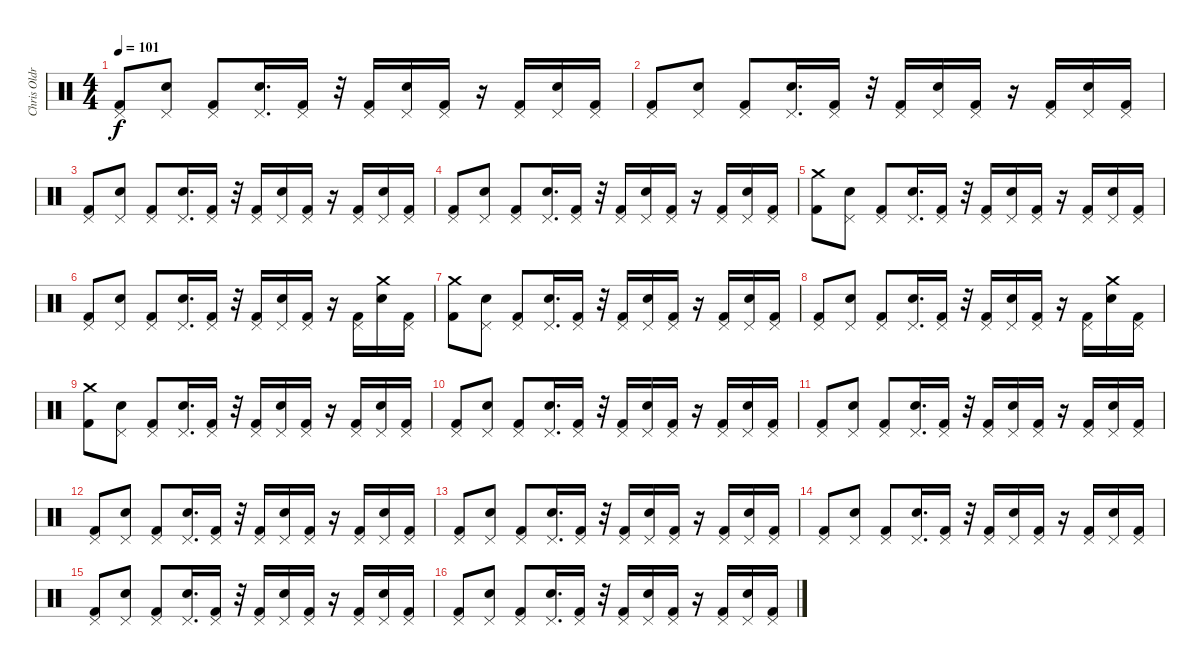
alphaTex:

\track ("Chris Oldroyd" "Chris Oldr") {instrument percussion}
\staff {score}
\articulation defaults
\ts (4 4)
\tempo 101
\clef neutral
\ks c
("Pedal Hi-Hat (hit)" "Kick (hit) 2").8{dy f} ("Pedal Hi-Hat (hit)" "Snare (hit) 2").8 ("Pedal Hi-Hat (hit)" "Kick (hit) 2").8 ("Pedal Hi-Hat (hit)" "Snare (hit) 2").16{d} ("Pedal Hi-Hat (hit)" "Kick (hit) 2").16 r.32 ("Pedal Hi-Hat (hit)" "Kick (hit) 2").16 ("Pedal Hi-Hat (hit)" "Snare (hit) 2").16 ("Pedal Hi-Hat (hit)" "Kick (hit) 2").16 r.16 ("Pedal Hi-Hat (hit)" "Kick (hit) 2").16 ("Pedal Hi-Hat (hit)" "Snare (hit) 2").16 ("Pedal Hi-Hat (hit)" "Kick (hit) 2").16 |
("Pedal Hi-Hat (hit)" "Kick (hit) 2").8 ("Pedal Hi-Hat (hit)" "Snare (hit) 2").8 ("Pedal Hi-Hat (hit)" "Kick (hit) 2").8 ("Pedal Hi-Hat (hit)" "Snare (hit) 2").16{d} ("Pedal Hi-Hat (hit)" "Kick (hit) 2").16 r.32 ("Pedal Hi-Hat (hit)" "Kick (hit) 2").16 ("Pedal Hi-Hat (hit)" "Snare (hit) 2").16 ("Pedal Hi-Hat (hit)" "Kick (hit) 2").16 r.16 ("Pedal Hi-Hat (hit)" "Kick (hit) 2").16 ("Pedal Hi-Hat (hit)" "Snare (hit) 2").16 ("Pedal Hi-Hat (hit)" "Kick (hit) 2").16 |
("Pedal Hi-Hat (hit)" "Kick (hit) 2").8 ("Pedal Hi-Hat (hit)" "Snare (hit) 2").8 ("Pedal Hi-Hat (hit)" "Kick (hit) 2").8 ("Pedal Hi-Hat (hit)" "Snare (hit) 2").16{d} ("Pedal Hi-Hat (hit)" "Kick (hit) 2").16 r.32 ("Pedal Hi-Hat (hit)" "Kick (hit) 2").16 ("Pedal Hi-Hat (hit)" "Snare (hit) 2").16 ("Pedal Hi-Hat (hit)" "Kick (hit) 2").16 r.16 ("Pedal Hi-Hat (hit)" "Kick (hit) 2").16 ("Pedal Hi-Hat (hit)" "Snare (hit) 2").16 ("Pedal Hi-Hat (hit)" "Kick (hit) 2").16 |
("Pedal Hi-Hat (hit)" "Kick (hit) 2").8 ("Pedal Hi-Hat (hit)" "Snare (hit) 2").8 ("Pedal Hi-Hat (hit)" "Kick (hit) 2").8 ("Pedal Hi-Hat (hit)" "Snare (hit) 2").16{d} ("Pedal Hi-Hat (hit)" "Kick (hit) 2").16 r.32 ("Pedal Hi-Hat (hit)" "Kick (hit) 2").16 ("Pedal Hi-Hat (hit)" "Snare (hit) 2").16 ("Pedal Hi-Hat (hit)" "Kick (hit) 2").16 r.16 ("Pedal Hi-Hat (hit)" "Kick (hit) 2").16 ("Pedal Hi-Hat (hit)" "Snare (hit) 2").16 ("Pedal Hi-Hat (hit)" "Kick (hit) 2").16 |
("Crash medium (hit)" "Kick (hit) 2").8 ("Pedal Hi-Hat (hit)" "Snare (hit) 2").8 ("Pedal Hi-Hat (hit)" "Kick (hit) 2").8 ("Pedal Hi-Hat (hit)" "Snare (hit) 2").16{d} ("Pedal Hi-Hat (hit)" "Kick (hit) 2").16 r.32 ("Pedal Hi-Hat (hit)" "Kick (hit) 2").16 ("Pedal Hi-Hat (hit)" "Snare (hit) 2").16 ("Pedal Hi-Hat (hit)" "Kick (hit) 2").16 r.16 ("Pedal Hi-Hat (hit)" "Kick (hit) 2").16 ("Pedal Hi-Hat (hit)" "Snare (hit) 2").16 ("Pedal Hi-Hat (hit)" "Kick (hit) 2").16 |
("Pedal Hi-Hat (hit)" "Kick (hit) 2").8 ("Pedal Hi-Hat (hit)" "Snare (hit) 2").8 ("Pedal Hi-Hat (hit)" "Kick (hit) 2").8 ("Pedal Hi-Hat (hit)" "Snare (hit) 2").16{d} ("Pedal Hi-Hat (hit)" "Kick (hit) 2").16 r.32 ("Pedal Hi-Hat (hit)" "Kick (hit) 2").16 ("Pedal Hi-Hat (hit)" "Snare (hit) 2").16 ("Pedal Hi-Hat (hit)" "Kick (hit) 2").16 r.16 ("Pedal Hi-Hat (hit)" "Kick (hit) 2").16 ("Crash medium (hit)" "Snare (hit) 2").16 ("Pedal Hi-Hat (hit)" "Kick (hit) 2").16 |
("Crash medium (hit)" "Kick (hit) 2").8 ("Pedal Hi-Hat (hit)" "Snare (hit) 2").8 ("Pedal Hi-Hat (hit)" "Kick (hit) 2").8 ("Pedal Hi-Hat (hit)" "Snare (hit) 2").16{d} ("Pedal Hi-Hat (hit)" "Kick (hit) 2").16 r.32 ("Pedal Hi-Hat (hit)" "Kick (hit) 2").16 ("Pedal Hi-Hat (hit)" "Snare (hit) 2").16 ("Pedal Hi-Hat (hit)" "Kick (hit) 2").16 r.16 ("Pedal Hi-Hat (hit)" "Kick (hit) 2").16 ("Pedal Hi-Hat (hit)" "Snare (hit) 2").16 ("Pedal Hi-Hat (hit)" "Kick (hit) 2").16 |
("Pedal Hi-Hat (hit)" "Kick (hit) 2").8 ("Pedal Hi-Hat (hit)" "Snare (hit) 2").8 ("Pedal Hi-Hat (hit)" "Kick (hit) 2").8 ("Pedal Hi-Hat (hit)" "Snare (hit) 2").16{d} ("Pedal Hi-Hat (hit)" "Kick (hit) 2").16 r.32 ("Pedal Hi-Hat (hit)" "Kick (hit) 2").16 ("Pedal Hi-Hat (hit)" "Snare (hit) 2").16 ("Pedal Hi-Hat (hit)" "Kick (hit) 2").16 r.16 ("Pedal Hi-Hat (hit)" "Kick (hit) 2").16 ("Crash medium (hit)" "Snare (hit) 2").16 ("Pedal Hi-Hat (hit)" "Kick (hit) 2").16 |
("Crash medium (hit)" "Kick (hit) 2").8 ("Pedal Hi-Hat (hit)" "Snare (hit) 2").8 ("Pedal Hi-Hat (hit)" "Kick (hit) 2").8 ("Pedal Hi-Hat (hit)" "Snare (hit) 2").16{d} ("Pedal Hi-Hat (hit)" "Kick (hit) 2").16 r.32 ("Pedal Hi-Hat (hit)" "Kick (hit) 2").16 ("Pedal Hi-Hat (hit)" "Snare (hit) 2").16 ("Pedal Hi-Hat (hit)" "Kick (hit) 2").16 r.16 ("Pedal Hi-Hat (hit)" "Kick (hit) 2").16 ("Pedal Hi-Hat (hit)" "Snare (hit) 2").16 ("Pedal Hi-Hat (hit)" "Kick (hit) 2").16 |
("Pedal Hi-Hat (hit)" "Kick (hit) 2").8 ("Pedal Hi-Hat (hit)" "Snare (hit) 2").8 ("Pedal Hi-Hat (hit)" "Kick (hit) 2").8 ("Pedal Hi-Hat (hit)" "Snare (hit) 2").16{d} ("Pedal Hi-Hat (hit)" "Kick (hit) 2").16 r.32 ("Pedal Hi-Hat (hit)" "Kick (hit) 2").16 ("Pedal Hi-Hat (hit)" "Snare (hit) 2").16 ("Pedal Hi-Hat (hit)" "Kick (hit) 2").16 r.16 ("Pedal Hi-Hat (hit)" "Kick (hit) 2").16 ("Pedal Hi-Hat (hit)" "Snare (hit) 2").16 ("Pedal Hi-Hat (hit)" "Kick (hit) 2").16 |
("Pedal Hi-Hat (hit)" "Kick (hit) 2").8 ("Pedal Hi-Hat (hit)" "Snare (hit) 2").8 ("Pedal Hi-Hat (hit)" "Kick (hit) 2").8 ("Pedal Hi-Hat (hit)" "Snare (hit) 2").16{d} ("Pedal Hi-Hat (hit)" "Kick (hit) 2").16 r.32 ("Pedal Hi-Hat (hit)" "Kick (hit) 2").16 ("Pedal Hi-Hat (hit)" "Snare (hit) 2").16 ("Pedal Hi-Hat (hit)" "Kick (hit) 2").16 r.16 ("Pedal Hi-Hat (hit)" "Kick (hit) 2").16 ("Pedal Hi-Hat (hit)" "Snare (hit) 2").16 ("Pedal Hi-Hat (hit)" "Kick (hit) 2").16 |
("Pedal Hi-Hat (hit)" "Kick (hit) 2").8 ("Pedal Hi-Hat (hit)" "Snare (hit) 2").8 ("Pedal Hi-Hat (hit)" "Kick (hit) 2").8 ("Pedal Hi-Hat (hit)" "Snare (hit) 2").16{d} ("Pedal Hi-Hat (hit)" "Kick (hit) 2").16 r.32 ("Pedal Hi-Hat (hit)" "Kick (hit) 2").16 ("Pedal Hi-Hat (hit)" "Snare (hit) 2").16 ("Pedal Hi-Hat (hit)" "Kick (hit) 2").16 r.16 ("Pedal Hi-Hat (hit)" "Kick (hit) 2").16 ("Pedal Hi-Hat (hit)" "Snare (hit) 2").16 ("Pedal Hi-Hat (hit)" "Kick (hit) 2").16 |
("Pedal Hi-Hat (hit)" "Kick (hit) 2").8 ("Pedal Hi-Hat (hit)" "Snare (hit) 2").8 ("Pedal Hi-Hat (hit)" "Kick (hit) 2").8 ("Pedal Hi-Hat (hit)" "Snare (hit) 2").16{d} ("Pedal Hi-Hat (hit)" "Kick (hit) 2").16 r.32 ("Pedal Hi-Hat (hit)" "Kick (hit) 2").16 ("Pedal Hi-Hat (hit)" "Snare (hit) 2").16 ("Pedal Hi-Hat (hit)" "Kick (hit) 2").16 r.16 ("Pedal Hi-Hat (hit)" "Kick (hit) 2").16 ("Pedal Hi-Hat (hit)" "Snare (hit) 2").16 ("Pedal Hi-Hat (hit)" "Kick (hit) 2").16 |
("Pedal Hi-Hat (hit)" "Kick (hit) 2").8 ("Pedal Hi-Hat (hit)" "Snare (hit) 2").8 ("Pedal Hi-Hat (hit)" "Kick (hit) 2").8 ("Pedal Hi-Hat (hit)" "Snare (hit) 2").16{d} ("Pedal Hi-Hat (hit)" "Kick (hit) 2").16 r.32 ("Pedal Hi-Hat (hit)" "Kick (hit) 2").16 ("Pedal Hi-Hat (hit)" "Snare (hit) 2").16 ("Pedal Hi-Hat (hit)" "Kick (hit) 2").16 r.16 ("Pedal Hi-Hat (hit)" "Kick (hit) 2").16 ("Pedal Hi-Hat (hit)" "Snare (hit) 2").16 ("Pedal Hi-Hat (hit)" "Kick (hit) 2").16 |
("Pedal Hi-Hat (hit)" "Kick (hit) 2").8 ("Pedal Hi-Hat (hit)" "Snare (hit) 2").8 ("Pedal Hi-Hat (hit)" "Kick (hit) 2").8 ("Pedal Hi-Hat (hit)" "Snare (hit) 2").16{d} ("Pedal Hi-Hat (hit)" "Kick (hit) 2").16 r.32 ("Pedal Hi-Hat (hit)" "Kick (hit) 2").16 ("Pedal Hi-Hat (hit)" "Snare (hit) 2").16 ("Pedal Hi-Hat (hit)" "Kick (hit) 2").16 r.16 ("Pedal Hi-Hat (hit)" "Kick (hit) 2").16 ("Pedal Hi-Hat (hit)" "Snare (hit) 2").16 ("Pedal Hi-Hat (hit)" "Kick (hit) 2").16 |
("Pedal Hi-Hat (hit)" "Kick (hit) 2").8 ("Pedal Hi-Hat (hit)" "Snare (hit) 2").8 ("Pedal Hi-Hat (hit)" "Kick (hit) 2").8 ("Pedal Hi-Hat (hit)" "Snare (hit) 2").16{d} ("Pedal Hi-Hat (hit)" "Kick (hit) 2").16 r.32 ("Pedal Hi-Hat (hit)" "Kick (hit) 2").16 ("Pedal Hi-Hat (hit)" "Snare (hit) 2").16 ("Pedal Hi-Hat (hit)" "Kick (hit) 2").16 r.16 ("Pedal Hi-Hat (hit)" "Kick (hit) 2").16 ("Pedal Hi-Hat (hit)" "Snare (hit) 2").16 ("Pedal Hi-Hat (hit)" "Kick (hit) 2").16
